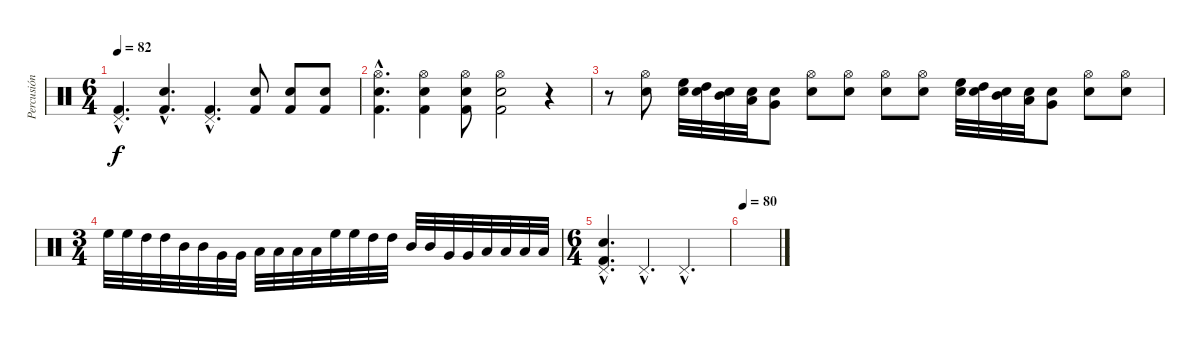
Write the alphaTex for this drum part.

\track ("Percusión" "Percusión") {instrument percussion}
\staff {score}
\articulation defaults
\ts (6 4)
\tempo 82
\clef neutral
\ks c
("Pedal Hi-Hat (hit)"{hac} "Kick (hit) 2"{hac}).4{d dy f} ("Snare (hit) 2"{hac} "Kick (hit) 2"{hac}).4{d} ("Pedal Hi-Hat (hit)"{hac} "Kick (hit) 2"{hac}).4{d} ("Snare (hit) 2" "Kick (hit) 2").8 ("Snare (hit) 2" "Kick (hit) 2").8 ("Snare (hit) 2" "Kick (hit) 2").8 |
("Snare (hit) 2"{hac} "Kick (hit) 2"{hac} "Hi-Hat (open)"{hac}).4{d} ("Snare (hit) 2" "Kick (hit) 2" "Hi-Hat (open)").4 ("Snare (hit) 2" "Kick (hit) 2" "Hi-Hat (open)").8 ("Snare (hit) 2" "Kick (hit) 2" "Hi-Hat (open)").2 r.4 |
r.8 ("Snare (hit) 2" "Hi-Hat (open)").8 ("Snare (hit) 2" "High Floor Tom (hit)").32 ("Snare (hit) 2" "High Tom (hit)").32 ("Snare (hit) 2" "Mid Tom (hit)").32 ("Snare (hit) 2" "Low Tom (hit)").32 ("Snare (hit) 2" "Very Low Tom (hit)").8 ("Snare (hit) 2" "Hi-Hat (open)").8 ("Snare (hit) 2" "Hi-Hat (open)").8 ("Snare (hit) 2" "Hi-Hat (open)").8 ("Snare (hit) 2" "Hi-Hat (open)").8 ("Snare (hit) 2" "High Floor Tom (hit)").32 ("Snare (hit) 2" "High Tom (hit)").32 ("Snare (hit) 2" "Mid Tom (hit)").32 ("Snare (hit) 2" "Low Tom (hit)").32 ("Snare (hit) 2" "Very Low Tom (hit)").8 ("Snare (hit) 2" "Hi-Hat (open)").8 ("Snare (hit) 2" "Hi-Hat (open)").8 |
\ts (3 4)
"High Floor Tom (hit)".32 "High Floor Tom (hit)".32 "High Tom (hit)".32 "High Tom (hit)".32 "Mid Tom (hit)".32 "Mid Tom (hit)".32 "Very Low Tom (hit)".32 "Very Low Tom (hit)".32 "Low Floor Tom (hit)".32 "Low Floor Tom (hit)".32 "Low Floor Tom (hit)".32 "Low Floor Tom (hit)".32 "High Floor Tom (hit)".32 "High Floor Tom (hit)".32 "High Tom (hit)".32 "High Tom (hit)".32 "Mid Tom (hit)".32 "Mid Tom (hit)".32 "Very Low Tom (hit)".32 "Very Low Tom (hit)".32 "Low Floor Tom (hit)".32 "Low Floor Tom (hit)".32 "Low Floor Tom (hit)".32 "Low Floor Tom (hit)".32 |
\ts (6 4)
("Pedal Hi-Hat (hit)"{hac} "Kick (hit) 2"{hac} "Snare (hit) 2"{hac}).4{d} "Pedal Hi-Hat (hit)"{hac}.4{d} "Pedal Hi-Hat (hit)"{hac}.2{d} |
\tempo 80
